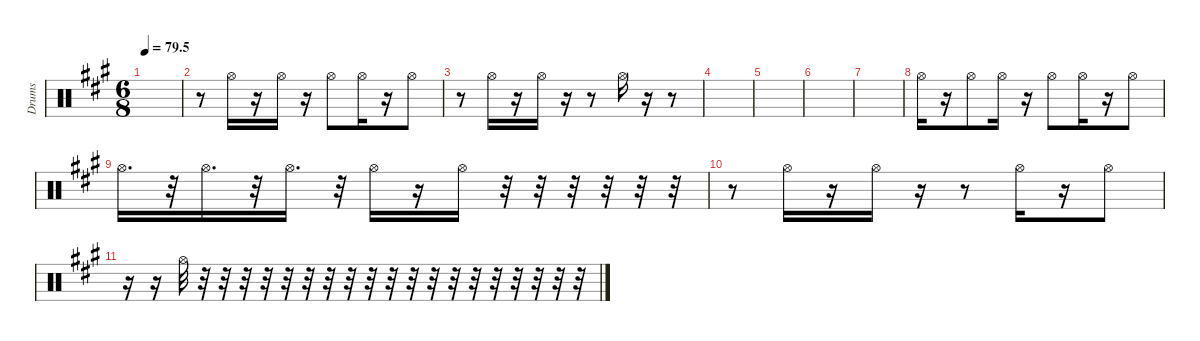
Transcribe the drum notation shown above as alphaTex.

\defaultSystemsLayout 4
\hideDynamics
\bracketExtendMode nobrackets
\otherSystemsTrackNameOrientation horizontal
\track ("Hihat" "Drums") {instrument percussion}
\staff {score}
\articulation defaults
\ts (6 8)
\tempo
79.5
\accidentals auto
\clef neutral
\ottava regular
\simile none
\scale
0.333333
\ks a
|
\scale
0.333333 r.8 "Hi-Hat (open)"{acc forcenatural}.16 r.16 "Hi-Hat (open)"{acc forcenatural}.16 r.16 "Hi-Hat (open)"{acc forcenatural}.8 "Hi-Hat (open)"{acc forcenatural}.16 r.16 "Hi-Hat (open)"{acc forcenatural}.8 |
\scale
0.333333 r.8 "Hi-Hat (open)"{acc forcenatural}.16 r.16 "Hi-Hat (open)"{acc forcenatural}.16 r.16 r.8 "Hi-Hat (open)"{acc forcenatural}.16 r.16 r.8 |
\scale
0.333333 |
\scale
0.333333 |
\scale
0.333333 |
\scale
0.333333 |
\scale
0.333333 "Hi-Hat (open)"{acc forcenatural}.16 r.16 "Hi-Hat (open)"{acc forcenatural}.8 "Hi-Hat (open)"{acc forcenatural}.16 r.16 "Hi-Hat (open)"{acc forcenatural}.8 "Hi-Hat (open)"{acc forcenatural}.16 r.16 "Hi-Hat (open)"{acc forcenatural}.8 |
\scale
0.333333 "Hi-Hat (open)"{acc forcenatural}.16{d} r.32 "Hi-Hat (open)"{acc forcenatural}.16{d} r.32 "Hi-Hat (open)"{acc forcenatural}.16{d} r.32 "Hi-Hat (open)"{acc forcenatural}.16 r.16 "Hi-Hat (open)"{acc forcenatural}.16 r.32 r.32 r.32 r.32 r.32 r.32 |
\scale
0.333333 r.8 "Hi-Hat (open)"{acc forcenatural}.16 r.16 "Hi-Hat (open)"{acc forcenatural}.16 r.16 r.8 "Hi-Hat (open)"{acc forcenatural}.16 r.16 "Hi-Hat (open)"{acc forcenatural}.8 |
\scale
0.333333 r.16 r.16 "Hi-Hat (open)"{acc forcenatural}.32 r.32 r.32 r.32 r.32 r.32 r.32 r.32 r.32 r.32 r.32 r.32 r.32 r.32 r.32 r.32 r.32 r.32 r.32 r.32 |
\scale
0.333333 |
\scale
0.333333 |
\scale
0.333333 |
\scale
0.333333 |
\scale
0.333333
